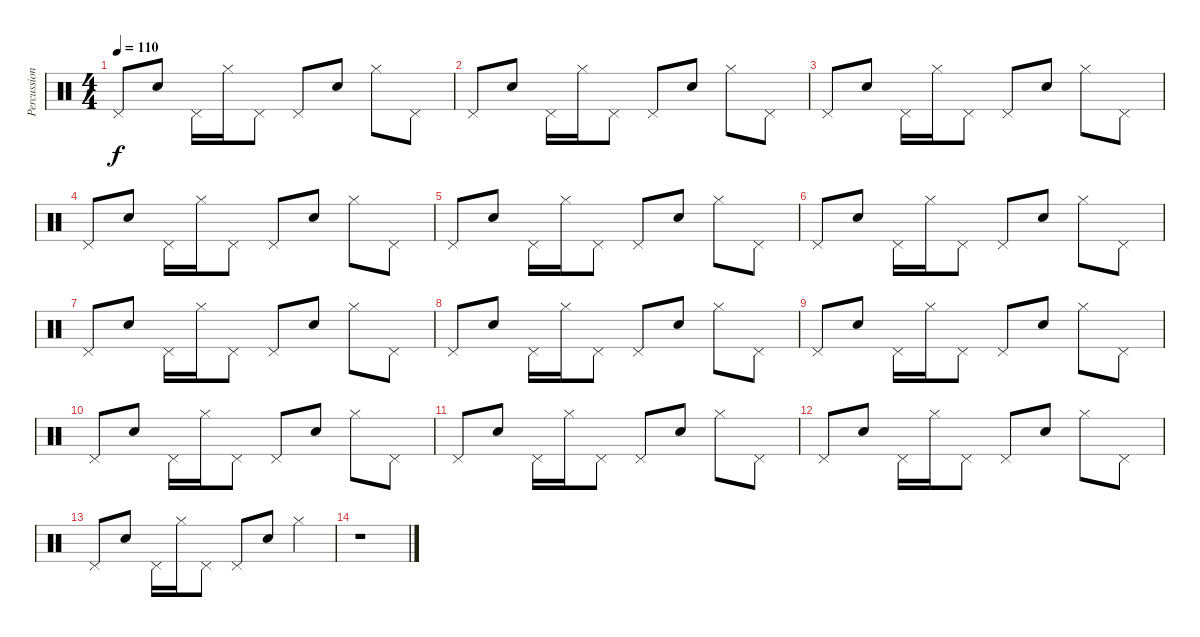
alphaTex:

\track ("Percussions" "Percussion") {instrument percussion}
\staff {score}
\articulation defaults
\ts (4 4)
\tempo 110
\clef neutral
\ks c "Pedal Hi-Hat (hit)".8{dy f} "Snare (hit) 2".8 "Pedal Hi-Hat (hit)".16 "Hi-Hat (closed)".16 "Pedal Hi-Hat (hit)".8 "Pedal Hi-Hat (hit)".8 "Snare (hit) 2".8 "Hi-Hat (closed)".8 "Pedal Hi-Hat (hit)".8
|
"Pedal Hi-Hat (hit)".8 "Snare (hit) 2".8 "Pedal Hi-Hat (hit)".16 "Hi-Hat (closed)".16 "Pedal Hi-Hat (hit)".8 "Pedal Hi-Hat (hit)".8 "Snare (hit) 2".8 "Hi-Hat (closed)".8 "Pedal Hi-Hat (hit)".8 |
"Pedal Hi-Hat (hit)".8 "Snare (hit) 2".8 "Pedal Hi-Hat (hit)".16 "Hi-Hat (closed)".16 "Pedal Hi-Hat (hit)".8 "Pedal Hi-Hat (hit)".8 "Snare (hit) 2".8 "Hi-Hat (closed)".8 "Pedal Hi-Hat (hit)".8 |
"Pedal Hi-Hat (hit)".8 "Snare (hit) 2".8 "Pedal Hi-Hat (hit)".16 "Hi-Hat (closed)".16 "Pedal Hi-Hat (hit)".8 "Pedal Hi-Hat (hit)".8 "Snare (hit) 2".8 "Hi-Hat (closed)".8 "Pedal Hi-Hat (hit)".8 |
"Pedal Hi-Hat (hit)".8 "Snare (hit) 2".8 "Pedal Hi-Hat (hit)".16 "Hi-Hat (closed)".16 "Pedal Hi-Hat (hit)".8 "Pedal Hi-Hat (hit)".8 "Snare (hit) 2".8 "Hi-Hat (closed)".8 "Pedal Hi-Hat (hit)".8 |
"Pedal Hi-Hat (hit)".8 "Snare (hit) 2".8 "Pedal Hi-Hat (hit)".16 "Hi-Hat (closed)".16 "Pedal Hi-Hat (hit)".8 "Pedal Hi-Hat (hit)".8 "Snare (hit) 2".8 "Hi-Hat (closed)".8 "Pedal Hi-Hat (hit)".8 |
"Pedal Hi-Hat (hit)".8 "Snare (hit) 2".8 "Pedal Hi-Hat (hit)".16 "Hi-Hat (closed)".16 "Pedal Hi-Hat (hit)".8 "Pedal Hi-Hat (hit)".8 "Snare (hit) 2".8 "Hi-Hat (closed)".8 "Pedal Hi-Hat (hit)".8 |
"Pedal Hi-Hat (hit)".8 "Snare (hit) 2".8 "Pedal Hi-Hat (hit)".16 "Hi-Hat (closed)".16 "Pedal Hi-Hat (hit)".8 "Pedal Hi-Hat (hit)".8 "Snare (hit) 2".8 "Hi-Hat (closed)".8 "Pedal Hi-Hat (hit)".8 |
"Pedal Hi-Hat (hit)".8 "Snare (hit) 2".8 "Pedal Hi-Hat (hit)".16 "Hi-Hat (closed)".16 "Pedal Hi-Hat (hit)".8 "Pedal Hi-Hat (hit)".8 "Snare (hit) 2".8 "Hi-Hat (closed)".8 "Pedal Hi-Hat (hit)".8 |
"Pedal Hi-Hat (hit)".8 "Snare (hit) 2".8 "Pedal Hi-Hat (hit)".16 "Hi-Hat (closed)".16 "Pedal Hi-Hat (hit)".8 "Pedal Hi-Hat (hit)".8 "Snare (hit) 2".8 "Hi-Hat (closed)".8 "Pedal Hi-Hat (hit)".8 |
"Pedal Hi-Hat (hit)".8 "Snare (hit) 2".8 "Pedal Hi-Hat (hit)".16 "Hi-Hat (closed)".16 "Pedal Hi-Hat (hit)".8 "Pedal Hi-Hat (hit)".8 "Snare (hit) 2".8 "Hi-Hat (closed)".8 "Pedal Hi-Hat (hit)".8 |
"Pedal Hi-Hat (hit)".8 "Snare (hit) 2".8 "Pedal Hi-Hat (hit)".16 "Hi-Hat (closed)".16 "Pedal Hi-Hat (hit)".8 "Pedal Hi-Hat (hit)".8 "Snare (hit) 2".8 "Hi-Hat (closed)".8 "Pedal Hi-Hat (hit)".8 |
"Pedal Hi-Hat (hit)".8 "Snare (hit) 2".8 "Pedal Hi-Hat (hit)".16 "Hi-Hat (closed)".16 "Pedal Hi-Hat (hit)".8 "Pedal Hi-Hat (hit)".8 "Snare (hit) 2".8 "Hi-Hat (closed)".4 |
r.1
